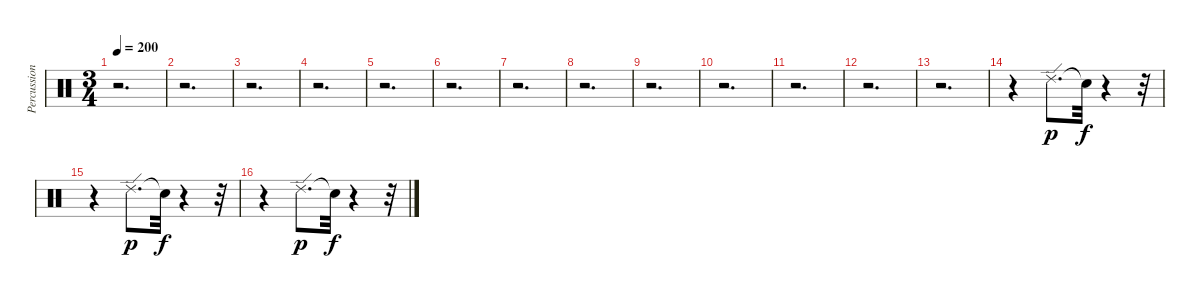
\track ("Percussion." "Percussion") {instrument percussion}
\staff {score}
\articulation defaults
\ts (3 4)
\tempo 200
\clef neutral
\ks c
r.2{d dy f} |
r.2{d} |
r.2{d} |
r.2{d} |
r.2{d} |
r.2{d} |
r.2{d} |
r.2{d} |
r.2{d} |
r.2{d} |
r.2{d} |
r.2{d} |
r.2{d} |
r.4 "Ride (edge) 2".8{d dy p} "Snare (hit)"{t}.32{dy f} r.4 r.32 |
r.4 "Ride (edge) 2".8{d dy p} "Snare (hit)"{t}.32{dy f} r.4 r.32 |
r.4 "Ride (edge) 2".8{d dy p} "Snare (hit)"{t}.32{dy f} r.4 r.32
